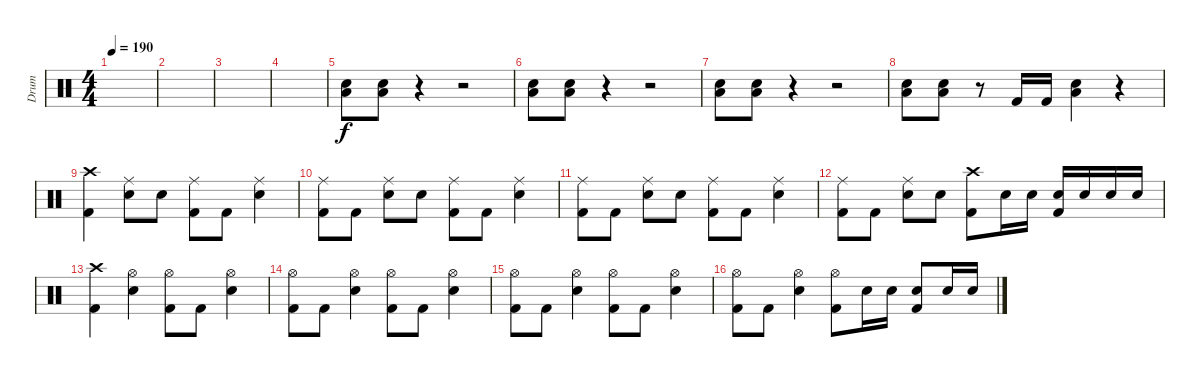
\track ("Drum" "Drum") {instrument percussion}
\staff {score}
\articulation defaults
\ts (4 4)
\tempo 190
\clef neutral
\ks c
|
|
|
|
("Electric Snare (hit)" "Low Floor Tom (hit)").8 ("Electric Snare (hit)" "Low Floor Tom (hit)").8 r.4 r.2 |
("Electric Snare (hit)" "Low Floor Tom (hit)").8 ("Electric Snare (hit)" "Low Floor Tom (hit)").8 r.4 r.2 |
("Electric Snare (hit)" "Low Floor Tom (hit)").8 ("Electric Snare (hit)" "Low Floor Tom (hit)").8 r.4 r.2 |
("Electric Snare (hit)" "Low Floor Tom (hit)").8 ("Electric Snare (hit)" "Low Floor Tom (hit)").8 r.8 "Kick (hit) 2".16 "Kick (hit) 2".16 ("Electric Snare (hit)" "Low Floor Tom (hit)").4 r.4 |
("Crash high (hit)" "Kick (hit) 2").4 ("Ride (middle)" "Electric Snare (hit)").8 "Electric Snare (hit)".8 ("Ride (middle)" "Kick (hit) 2").8 "Kick (hit) 2".8 ("Ride (middle)" "Electric Snare (hit)").4 |
("Ride (middle)" "Kick (hit) 2").8 "Kick (hit) 2".8 ("Ride (middle)" "Electric Snare (hit)").8 "Electric Snare (hit)".8 ("Ride (middle)" "Kick (hit) 2").8 "Kick (hit) 2".8 ("Ride (middle)" "Electric Snare (hit)").4 |
("Ride (middle)" "Kick (hit) 2").8 "Kick (hit) 2".8 ("Ride (middle)" "Electric Snare (hit)").8 "Electric Snare (hit)".8 ("Ride (middle)" "Kick (hit) 2").8 "Kick (hit) 2".8 ("Ride (middle)" "Electric Snare (hit)").4 |
("Ride (middle)" "Kick (hit) 2").8 "Kick (hit) 2".8 ("Ride (middle)" "Electric Snare (hit)").8 "Electric Snare (hit)".8 ("Crash high (hit)" "Kick (hit) 2").8 "Electric Snare (hit)".16 "Electric Snare (hit)".16 ("Electric Snare (hit)" "Kick (hit) 2").16 "Electric Snare (hit)".16 "Electric Snare (hit)".16 "Electric Snare (hit)".16 |
("Crash high (hit)" "Kick (hit) 2").4 ("Hi-Hat (open)" "Electric Snare (hit)").4 ("Hi-Hat (open)" "Kick (hit) 2").8 "Kick (hit) 2".8 ("Hi-Hat (open)" "Electric Snare (hit)").4 |
("Hi-Hat (open)" "Kick (hit) 2").8 "Kick (hit) 2".8 ("Hi-Hat (open)" "Electric Snare (hit)").4 ("Hi-Hat (open)" "Kick (hit) 2").8 "Kick (hit) 2".8 ("Hi-Hat (open)" "Electric Snare (hit)").4 |
("Hi-Hat (open)" "Kick (hit) 2").8 "Kick (hit) 2".8 ("Hi-Hat (open)" "Electric Snare (hit)").4 ("Hi-Hat (open)" "Kick (hit) 2").8 "Kick (hit) 2".8 ("Hi-Hat (open)" "Electric Snare (hit)").4 |
("Hi-Hat (open)" "Kick (hit) 2").8 "Kick (hit) 2".8 ("Hi-Hat (open)" "Electric Snare (hit)").4 ("Hi-Hat (open)" "Kick (hit) 2").8 "Electric Snare (hit)".16 "Electric Snare (hit)".16 ("Electric Snare (hit)" "Kick (hit) 2").8 "Electric Snare (hit)".16 "Electric Snare (hit)".16
